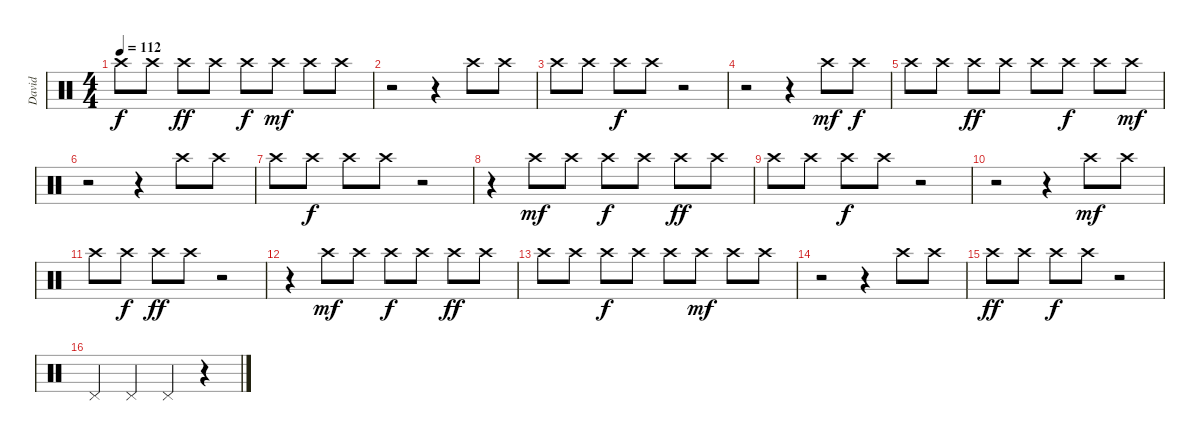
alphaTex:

\track ("David" "David") {instrument percussion}
\staff {score}
\articulation defaults
\ts (4 4)
\tempo 112
\clef neutral
\ks c "Crash high (hit)".8{dy f} "Crash high (hit)".8 "Crash high (hit)".8{dy ff} "Crash high (hit)".8 "Crash high (hit)".8{dy f} "Crash high (hit)".8{dy mf} "Crash high (hit)".8 "Crash high (hit)".8
|
r.2 r.4 "Crash high (hit)".8 "Crash high (hit)".8 |
"Crash high (hit)".8 "Crash high (hit)".8 "Crash high (hit)".8{dy f} "Crash high (hit)".8 r.2 |
r.2 r.4 "Crash high (hit)".8{dy mf} "Crash high (hit)".8{dy f} |
"Crash high (hit)".8 "Crash high (hit)".8 "Crash high (hit)".8{dy ff} "Crash high (hit)".8 "Crash high (hit)".8 "Crash high (hit)".8{dy f} "Crash high (hit)".8 "Crash high (hit)".8{dy mf} |
r.2 r.4 "Crash high (hit)".8 "Crash high (hit)".8 |
"Crash high (hit)".8 "Crash high (hit)".8{dy f} "Crash high (hit)".8 "Crash high (hit)".8 r.2 |
r.4 "Crash high (hit)".8{dy mf} "Crash high (hit)".8 "Crash high (hit)".8{dy f} "Crash high (hit)".8 "Crash high (hit)".8{dy ff} "Crash high (hit)".8 |
"Crash high (hit)".8 "Crash high (hit)".8 "Crash high (hit)".8{dy f} "Crash high (hit)".8 r.2 |
r.2 r.4 "Crash high (hit)".8{dy mf} "Crash high (hit)".8 |
"Crash high (hit)".8 "Crash high (hit)".8{dy f} "Crash high (hit)".8{dy ff} "Crash high (hit)".8 r.2 |
r.4 "Crash high (hit)".8{dy mf} "Crash high (hit)".8 "Crash high (hit)".8{dy f} "Crash high (hit)".8 "Crash high (hit)".8{dy ff} "Crash high (hit)".8 |
"Crash high (hit)".8 "Crash high (hit)".8 "Crash high (hit)".8{dy f} "Crash high (hit)".8 "Crash high (hit)".8 "Crash high (hit)".8{dy mf} "Crash high (hit)".8 "Crash high (hit)".8 |
r.2 r.4 "Crash high (hit)".8 "Crash high (hit)".8 |
"Crash high (hit)".8{dy ff} "Crash high (hit)".8 "Crash high (hit)".8{dy f} "Crash high (hit)".8 r.2 |
"Pedal Hi-Hat (hit)".4 "Pedal Hi-Hat (hit)".4 "Pedal Hi-Hat (hit)".4 r.4
